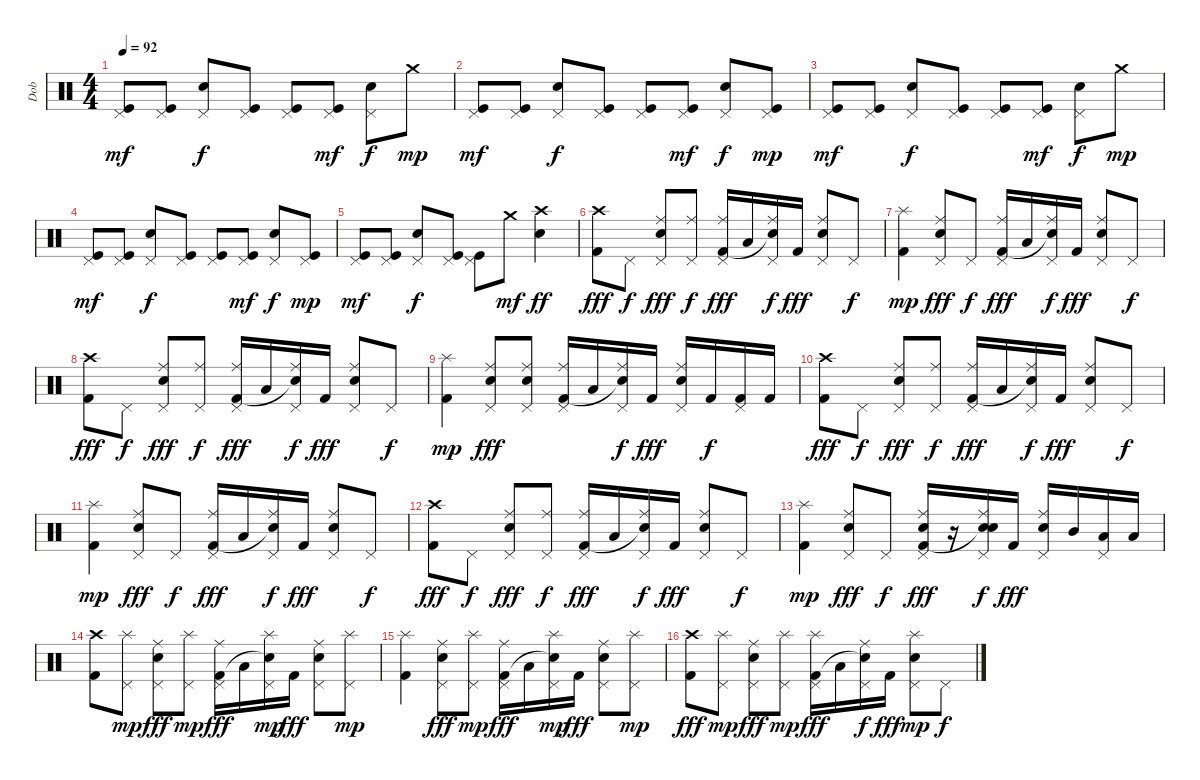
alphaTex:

\track ("Dob" "Dob") {instrument percussion}
\staff {score}
\articulation defaults
\ts (4 4)
\tempo 92
\clef neutral
\ks c
("Kick (hit)" "Pedal Hi-Hat (hit)").8{dy mf} ("Kick (hit)" "Pedal Hi-Hat (hit)").8 ("Electric Snare (hit)" "Pedal Hi-Hat (hit)").8{dy f} ("Kick (hit)" "Pedal Hi-Hat (hit)").8 ("Kick (hit)" "Pedal Hi-Hat (hit)").8 ("Kick (hit)" "Pedal Hi-Hat (hit)").8{dy mf} ("Electric Snare (hit)" "Pedal Hi-Hat (hit)").8{dy f} "Crash medium (hit)".8{dy mp} |
("Kick (hit)" "Pedal Hi-Hat (hit)").8{dy mf} ("Kick (hit)" "Pedal Hi-Hat (hit)").8 ("Electric Snare (hit)" "Pedal Hi-Hat (hit)").8{dy f} ("Kick (hit)" "Pedal Hi-Hat (hit)").8 ("Kick (hit)" "Pedal Hi-Hat (hit)").8 ("Kick (hit)" "Pedal Hi-Hat (hit)").8{dy mf} ("Electric Snare (hit)" "Pedal Hi-Hat (hit)").8{dy f} ("Kick (hit)" "Pedal Hi-Hat (hit)").8{dy mp} |
("Kick (hit)" "Pedal Hi-Hat (hit)").8{dy mf} ("Kick (hit)" "Pedal Hi-Hat (hit)").8 ("Electric Snare (hit)" "Pedal Hi-Hat (hit)").8{dy f} ("Kick (hit)" "Pedal Hi-Hat (hit)").8 ("Kick (hit)" "Pedal Hi-Hat (hit)").8 ("Kick (hit)" "Pedal Hi-Hat (hit)").8{dy mf} ("Electric Snare (hit)" "Pedal Hi-Hat (hit)").8{dy f} "Crash medium (hit)".8{dy mp} |
("Kick (hit)" "Pedal Hi-Hat (hit)").8{dy mf} ("Kick (hit)" "Pedal Hi-Hat (hit)").8 ("Electric Snare (hit)" "Pedal Hi-Hat (hit)").8{dy f} ("Kick (hit)" "Pedal Hi-Hat (hit)").8 ("Kick (hit)" "Pedal Hi-Hat (hit)").8 ("Kick (hit)" "Pedal Hi-Hat (hit)").8{dy mf} ("Electric Snare (hit)" "Pedal Hi-Hat (hit)").8{dy f} ("Kick (hit)" "Pedal Hi-Hat (hit)").8{dy mp} |
("Kick (hit)" "Pedal Hi-Hat (hit)").8{dy mf} ("Kick (hit)" "Pedal Hi-Hat (hit)").8 ("Electric Snare (hit)" "Pedal Hi-Hat (hit)").8{dy f} ("Kick (hit)" "Pedal Hi-Hat (hit)").8 ("Kick (hit)" "Pedal Hi-Hat (hit)").8 "Crash medium (hit)".8{dy mf} ("Electric Snare (hit)" "Crash high (hit)").4{dy ff} |
("Kick (hit) 2" "Crash high (hit)").8{dy fff} "Pedal Hi-Hat (hit)".8{dy f} ("Electric Snare (hit)" "Ride (middle)" "Pedal Hi-Hat (hit)").8{dy fff} ("Ride (middle)" "Pedal Hi-Hat (hit)").8{dy f} ("Ride (middle)" "Kick (hit) 2" "Pedal Hi-Hat (hit)").16{dy fff} "Low Tom (hit)".16 ("Ride (middle)" "Snare (hit)"{t} "Pedal Hi-Hat (hit)").16{dy f} "Kick (hit) 2".16{dy fff} ("Electric Snare (hit)" "Ride (middle)" "Pedal Hi-Hat (hit)").8 "Pedal Hi-Hat (hit)".8{dy f} |
("Kick (hit) 2" "Splash (hit)").4{dy mp} ("Electric Snare (hit)" "Ride (middle)" "Pedal Hi-Hat (hit)").8{dy fff} "Pedal Hi-Hat (hit)".8{dy f} ("Ride (middle)" "Kick (hit) 2" "Pedal Hi-Hat (hit)").16{dy fff} "Low Tom (hit)".16 ("Ride (middle)" "Snare (hit)"{t} "Pedal Hi-Hat (hit)").16{dy f} "Kick (hit) 2".16{dy fff} ("Electric Snare (hit)" "Ride (middle)" "Pedal Hi-Hat (hit)").8 "Pedal Hi-Hat (hit)".8{dy f} |
("Kick (hit) 2" "Crash high (hit)").8{dy fff} "Pedal Hi-Hat (hit)".8{dy f} ("Electric Snare (hit)" "Ride (middle)" "Pedal Hi-Hat (hit)").8{dy fff} ("Ride (middle)" "Pedal Hi-Hat (hit)").8{dy f} ("Ride (middle)" "Kick (hit) 2" "Pedal Hi-Hat (hit)").16{dy fff} "Low Tom (hit)".16 ("Ride (middle)" "Snare (hit)"{t} "Pedal Hi-Hat (hit)").16{dy f} "Kick (hit) 2".16{dy fff} ("Electric Snare (hit)" "Ride (middle)" "Pedal Hi-Hat (hit)").8 "Pedal Hi-Hat (hit)".8{dy f} |
("Kick (hit) 2" "Splash (hit)").4{dy mp} ("Electric Snare (hit)" "Ride (middle)" "Pedal Hi-Hat (hit)").8{dy fff} ("Electric Snare (hit)" "Ride (middle)" "Pedal Hi-Hat (hit)").8 ("Ride (middle)" "Kick (hit) 2" "Pedal Hi-Hat (hit)").16 "Low Tom (hit)".16 ("Ride (middle)" "Snare (hit)"{t} "Pedal Hi-Hat (hit)").16{dy f} "Kick (hit) 2".16{dy fff} ("Electric Snare (hit)" "Ride (middle)" "Pedal Hi-Hat (hit)").16 "Kick (hit) 2".16{dy f} ("Kick (hit) 2" "Pedal Hi-Hat (hit)").16 "Kick (hit) 2".16 |
("Kick (hit) 2" "Crash high (hit)").8{dy fff} "Pedal Hi-Hat (hit)".8{dy f} ("Electric Snare (hit)" "Ride (middle)" "Pedal Hi-Hat (hit)").8{dy fff} ("Ride (middle)" "Pedal Hi-Hat (hit)").8{dy f} ("Ride (middle)" "Kick (hit) 2" "Pedal Hi-Hat (hit)").16{dy fff} "Low Tom (hit)".16 ("Ride (middle)" "Snare (hit)"{t} "Pedal Hi-Hat (hit)").16{dy f} "Kick (hit) 2".16{dy fff} ("Electric Snare (hit)" "Ride (middle)" "Pedal Hi-Hat (hit)").8 "Pedal Hi-Hat (hit)".8{dy f} |
("Kick (hit) 2" "Splash (hit)").4{dy mp} ("Electric Snare (hit)" "Ride (middle)" "Pedal Hi-Hat (hit)").8{dy fff} "Pedal Hi-Hat (hit)".8{dy f} ("Ride (middle)" "Kick (hit) 2" "Pedal Hi-Hat (hit)").16{dy fff} "Low Tom (hit)".16 ("Ride (middle)" "Snare (hit)"{t} "Pedal Hi-Hat (hit)").16{dy f} "Kick (hit) 2".16{dy fff} ("Electric Snare (hit)" "Ride (middle)" "Pedal Hi-Hat (hit)").8 "Pedal Hi-Hat (hit)".8{dy f} |
("Kick (hit) 2" "Crash high (hit)").8{dy fff} "Pedal Hi-Hat (hit)".8{dy f} ("Electric Snare (hit)" "Ride (middle)" "Pedal Hi-Hat (hit)").8{dy fff} ("Ride (middle)" "Pedal Hi-Hat (hit)").8{dy f} ("Ride (middle)" "Kick (hit) 2" "Pedal Hi-Hat (hit)").16{dy fff} "Low Tom (hit)".16 ("Ride (middle)" "Snare (hit)"{t} "Pedal Hi-Hat (hit)").16{dy f} "Kick (hit) 2".16{dy fff} ("Electric Snare (hit)" "Ride (middle)" "Pedal Hi-Hat (hit)").8 "Pedal Hi-Hat (hit)".8{dy f} |
("Kick (hit) 2" "Splash (hit)").4{dy mp} ("Electric Snare (hit)" "Ride (middle)" "Pedal Hi-Hat (hit)").8{dy fff} "Pedal Hi-Hat (hit)".8{dy f} ("Electric Snare (hit)" "Ride (middle)" "Kick (hit) 2" "Pedal Hi-Hat (hit)").16{dy fff} r.16 ("Electric Snare (hit)" "Ride (middle)" "Snare (hit)"{t} "Pedal Hi-Hat (hit)").16{dy f} "Kick (hit) 2".16{dy fff} ("Electric Snare (hit)" "Ride (middle)" "Pedal Hi-Hat (hit)").16 "Mid Tom (hit)".16 ("Low Tom (hit)" "Pedal Hi-Hat (hit)").16 "Low Tom (hit)".16 |
("Kick (hit) 2" "Crash high (hit)").8 ("Splash (hit)" "Pedal Hi-Hat (hit)").8{dy mp} ("Electric Snare (hit)" "Ride (middle)" "Pedal Hi-Hat (hit)").8{dy fff} ("Splash (hit)" "Pedal Hi-Hat (hit)").8{dy mp} ("Ride (middle)" "Kick (hit) 2" "Pedal Hi-Hat (hit)").16{dy fff} "Low Tom (hit)".16 ("Splash (hit)" "Snare (hit)"{t} "Pedal Hi-Hat (hit)").16{dy mp} "Kick (hit) 2".16{dy fff} ("Electric Snare (hit)" "Ride (middle)" "Pedal Hi-Hat (hit)").8 ("Splash (hit)" "Pedal Hi-Hat (hit)").8{dy mp} |
("Kick (hit) 2" "Splash (hit)").4 ("Electric Snare (hit)" "Ride (middle)" "Pedal Hi-Hat (hit)").8{dy fff} ("Splash (hit)" "Pedal Hi-Hat (hit)").8{dy mp} ("Ride (middle)" "Kick (hit) 2" "Pedal Hi-Hat (hit)").16{dy fff} "Low Tom (hit)".16 ("Splash (hit)" "Snare (hit)"{t} "Pedal Hi-Hat (hit)").16{dy mp} "Kick (hit) 2".16{dy fff} ("Electric Snare (hit)" "Ride (middle)" "Pedal Hi-Hat (hit)").8 ("Splash (hit)" "Pedal Hi-Hat (hit)").8{dy mp} |
("Kick (hit) 2" "Crash high (hit)").8{dy fff} ("Splash (hit)" "Pedal Hi-Hat (hit)").8{dy mp} ("Electric Snare (hit)" "Ride (middle)" "Pedal Hi-Hat (hit)").8{dy fff} ("Splash (hit)" "Pedal Hi-Hat (hit)").8{dy mp} ("Splash (hit)" "Kick (hit) 2" "Pedal Hi-Hat (hit)").16{dy fff} "Low Tom (hit)".16 ("Ride (middle)" "Snare (hit)"{t} "Pedal Hi-Hat (hit)").16{dy f} "Kick (hit) 2".16{dy fff} ("Electric Snare (hit)" "Splash (hit)" "Pedal Hi-Hat (hit)").8{dy mp} "Pedal Hi-Hat (hit)".8{dy f}
